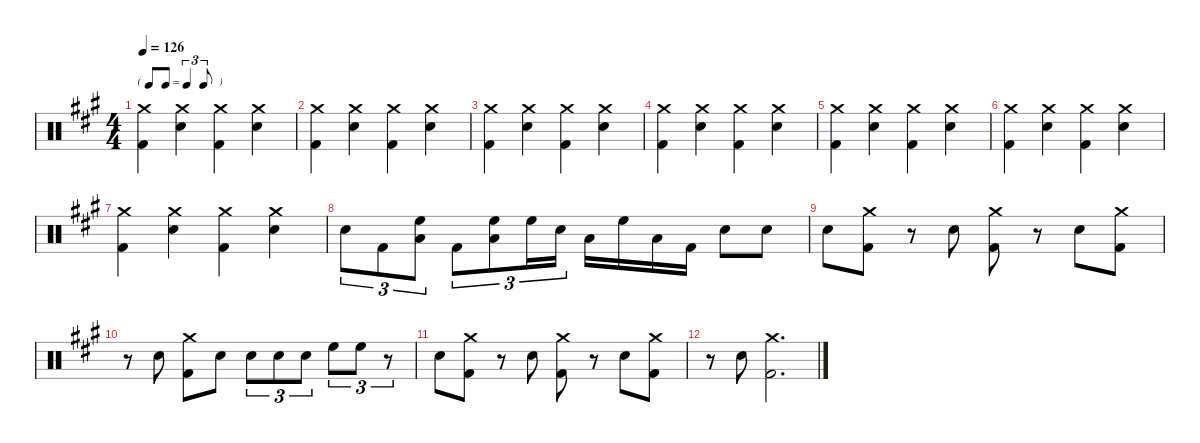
\hideDynamics
\bracketExtendMode nobrackets
\singleTrackTrackNamePolicy hidden
\multiTrackTrackNamePolicy hidden
\firstSystemTrackNameMode fullname
\firstSystemTrackNameOrientation horizontal
\otherSystemsTrackNameOrientation horizontal
\track ("Drumkit" "Drums") {defaultSystemsLayout 4 instrument percussion}
\staff {score}
\articulation defaults
\ts (4 4)
\tf triplet8th
\scale
0.5
\tempo 126
\accidentals auto
\clef neutral
\ottava regular
\simile none
\ks a
("Crash medium (hit)"{acc forcenatural} "Kick (hit) 2"{acc forcenatural}).4{dy f beam Down} ("Crash medium (hit)"{acc forcenatural} "Snare (hit) 2"{acc forcenatural}).4{beam Down} ("Crash medium (hit)"{acc forcenatural} "Kick (hit) 2"{acc forcenatural}).4{beam Down} ("Crash medium (hit)"{acc forcenatural} "Snare (hit) 2"{acc forcenatural}).4{beam Down} |
\scale
0.5 ("Crash medium (hit)"{acc forcenatural} "Kick (hit) 2"{acc forcenatural}).4{beam Down} ("Crash medium (hit)"{acc forcenatural} "Snare (hit) 2"{acc forcenatural}).4{beam Down} ("Crash medium (hit)"{acc forcenatural} "Kick (hit) 2"{acc forcenatural}).4{beam Down} ("Crash medium (hit)"{acc forcenatural} "Snare (hit) 2"{acc forcenatural}).4{beam Down} |
\scale
0.5 ("Crash medium (hit)"{acc forcenatural} "Kick (hit) 2"{acc forcenatural}).4{beam Down} ("Crash medium (hit)"{acc forcenatural} "Snare (hit) 2"{acc forcenatural}).4{beam Down} ("Crash medium (hit)"{acc forcenatural} "Kick (hit) 2"{acc forcenatural}).4{beam Down} ("Crash medium (hit)"{acc forcenatural} "Snare (hit) 2"{acc forcenatural}).4{beam Down} |
\scale
0.5 ("Crash medium (hit)"{acc forcenatural} "Kick (hit) 2"{acc forcenatural}).4{beam Down} ("Crash medium (hit)"{acc forcenatural} "Snare (hit) 2"{acc forcenatural}).4{beam Down} ("Crash medium (hit)"{acc forcenatural} "Kick (hit) 2"{acc forcenatural}).4{beam Down} ("Crash medium (hit)"{acc forcenatural} "Snare (hit) 2"{acc forcenatural}).4{beam Down} |
\scale
0.512195 ("Crash medium (hit)"{acc forcenatural} "Kick (hit) 2"{acc forcenatural}).4{beam Down} ("Crash medium (hit)"{acc forcenatural} "Snare (hit) 2"{acc forcenatural}).4{beam Down} ("Crash medium (hit)"{acc forcenatural} "Kick (hit) 2"{acc forcenatural}).4{beam Down} ("Crash medium (hit)"{acc forcenatural} "Snare (hit) 2"{acc forcenatural}).4{beam Down} |
\scale
0.487805 ("Crash medium (hit)"{acc forcenatural} "Kick (hit) 2"{acc forcenatural}).4{beam Down} ("Crash medium (hit)"{acc forcenatural} "Snare (hit) 2"{acc forcenatural}).4{beam Down} ("Crash medium (hit)"{acc forcenatural} "Kick (hit) 2"{acc forcenatural}).4{beam Down} ("Crash medium (hit)"{acc forcenatural} "Snare (hit) 2"{acc forcenatural}).4{beam Down} |
\scale
0.5 ("Crash medium (hit)"{acc forcenatural} "Kick (hit) 2"{acc forcenatural}).4{beam Down} ("Crash medium (hit)"{acc forcenatural} "Snare (hit) 2"{acc forcenatural}).4{beam Down} ("Crash medium (hit)"{acc forcenatural} "Kick (hit) 2"{acc forcenatural}).4{beam Down} ("Crash medium (hit)"{acc forcenatural} "Snare (hit) 2"{acc forcenatural}).4{beam Down} |
\scale
0.5 "Snare (hit) 2"{acc forcenatural}.8{tu (3 2) beam Down} "Kick (hit) 2"{acc forcenatural}.8{tu (3 2) beam Down} ("High Floor Tom (hit)"{acc forcenatural} "Low Tom (hit)"{acc forcenatural}).8{tu (3 2) beam Down} "Kick (hit) 2"{acc forcenatural}.8{tu (3 2) beam Down} ("High Floor Tom (hit)"{acc forcenatural} "Low Tom (hit)"{acc forcenatural}).8{tu (3 2) beam Down} "High Floor Tom (hit)"{acc forcenatural}.16{tu (3 2) beam Down} "Snare (hit) 2"{acc forcenatural}.16{tu (3 2) beam Down} "Low Tom (hit)"{acc forcenatural}.16{beam Down} "High Floor Tom (hit)"{acc forcenatural}.16{beam Down} "Low Tom (hit)"{acc forcenatural}.16{beam Down} "Kick (hit) 2"{acc forcenatural}.16{beam Down} "Snare (hit) 2"{acc forcenatural}.8{beam Down} "Snare (hit) 2"{acc forcenatural}.8{beam Down} |
\scale
0.5 "Snare (hit) 2"{acc forcenatural}.8{beam Down} ("Crash medium (hit)"{acc forcenatural} "Kick (hit) 2"{acc forcenatural}).8{beam Down} r.8{beam Down} "Snare (hit) 2"{acc forcenatural}.8{beam Down} ("Crash medium (hit)"{acc forcenatural} "Kick (hit) 2"{acc forcenatural}).8{beam Down} r.8{beam Down} "Snare (hit) 2"{acc forcenatural}.8{beam Down} ("Crash medium (hit)"{acc forcenatural} "Kick (hit) 2"{acc forcenatural}).8{beam Down} |
\scale
0.5 r.8{beam Down} "Snare (hit) 2"{acc forcenatural}.8{beam Down} ("Crash medium (hit)"{acc forcenatural} "Kick (hit) 2"{acc forcenatural}).8{beam Down} "Snare (hit) 2"{acc forcenatural}.8{beam Down} "Snare (hit) 2"{acc forcenatural}.8{tu (3 2) beam Down} "Snare (hit) 2"{acc forcenatural}.8{tu (3 2) beam Down} "Snare (hit) 2"{acc forcenatural}.8{tu (3 2) beam Down} "High Floor Tom (hit)"{acc forcenatural}.8{tu (3 2) beam Down} "High Floor Tom (hit)"{acc forcenatural}.8{tu (3 2) beam Down} r.8{tu (3 2) beam Down} |
\scale
0.5 "Snare (hit) 2"{acc forcenatural}.8{beam Down} ("Crash medium (hit)"{acc forcenatural} "Kick (hit) 2"{acc forcenatural}).8{beam Down} r.8{beam Down} "Snare (hit) 2"{acc forcenatural}.8{beam Down} ("Crash medium (hit)"{acc forcenatural} "Kick (hit) 2"{acc forcenatural}).8{beam Down} r.8{beam Down} "Snare (hit) 2"{acc forcenatural}.8{beam Down} ("Crash medium (hit)"{acc forcenatural} "Kick (hit) 2"{acc forcenatural}).8{beam Down} |
r.8{beam Down} "Snare (hit) 2"{acc forcenatural}.8{beam Down} ("Crash medium (hit)"{acc forcenatural} "Kick (hit) 2"{acc forcenatural}).2{d beam Down}
